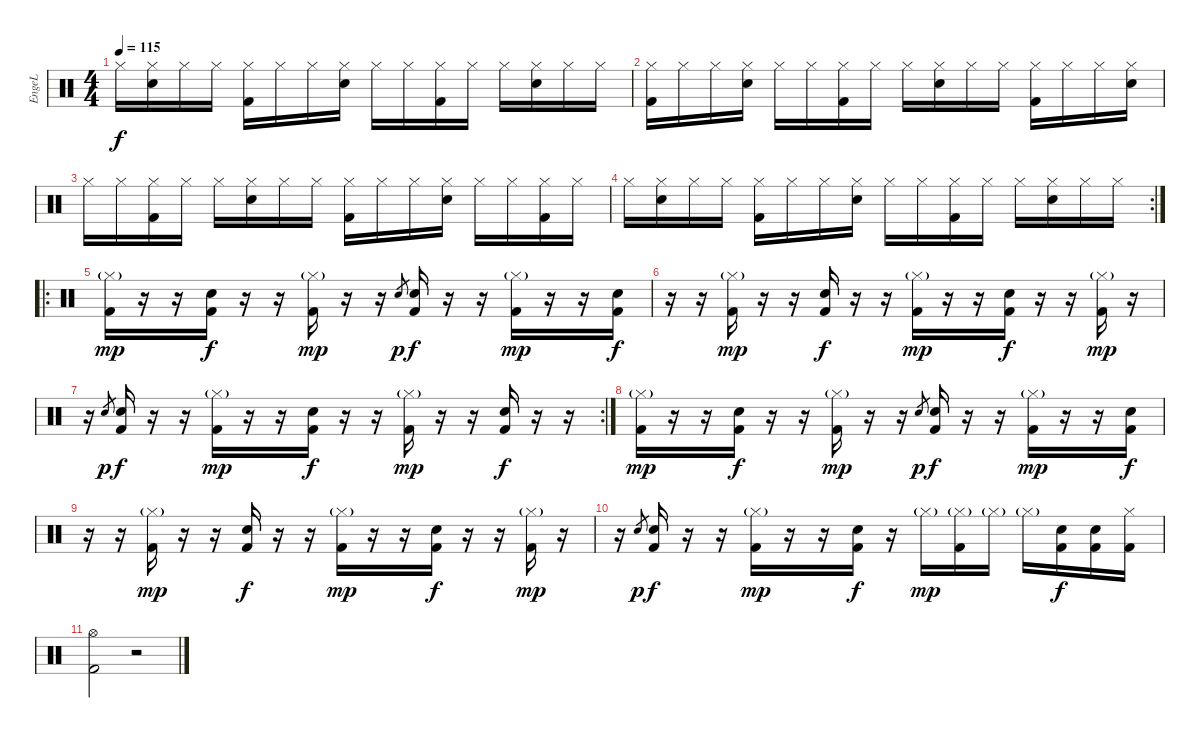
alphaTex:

\track ("EngeL" "EngeL") {instrument percussion}
\staff {score}
\articulation defaults
\ts (4 4)
\tempo 115
\clef neutral
\ks c "Hi-Hat (closed)".16{dy f}
("Hi-Hat (closed)" "Snare (hit) 2").16 "Hi-Hat (closed)".16 "Hi-Hat (closed)".16 ("Hi-Hat (closed)" "Kick (hit) 2").16 "Hi-Hat (closed)".16 "Hi-Hat (closed)".16 ("Hi-Hat (closed)" "Snare (hit) 2").16 "Hi-Hat (closed)".16 "Hi-Hat (closed)".16 ("Hi-Hat (closed)" "Kick (hit) 2").16 "Hi-Hat (closed)".16 "Hi-Hat (closed)".16 ("Hi-Hat (closed)" "Snare (hit) 2").16 "Hi-Hat (closed)".16 "Hi-Hat (closed)".16 |
("Hi-Hat (closed)" "Kick (hit) 2").16 "Hi-Hat (closed)".16 "Hi-Hat (closed)".16 ("Hi-Hat (closed)" "Snare (hit) 2").16 "Hi-Hat (closed)".16 "Hi-Hat (closed)".16 ("Hi-Hat (closed)" "Kick (hit) 2").16 "Hi-Hat (closed)".16 "Hi-Hat (closed)".16 ("Hi-Hat (closed)" "Snare (hit) 2").16 "Hi-Hat (closed)".16 "Hi-Hat (closed)".16 ("Hi-Hat (closed)" "Kick (hit) 2").16 "Hi-Hat (closed)".16 "Hi-Hat (closed)".16 ("Hi-Hat (closed)" "Snare (hit) 2").16 |
"Hi-Hat (closed)".16 "Hi-Hat (closed)".16 ("Hi-Hat (closed)" "Kick (hit) 2").16 "Hi-Hat (closed)".16 "Hi-Hat (closed)".16 ("Hi-Hat (closed)" "Snare (hit) 2").16 "Hi-Hat (closed)".16 "Hi-Hat (closed)".16 ("Hi-Hat (closed)" "Kick (hit) 2").16 "Hi-Hat (closed)".16 "Hi-Hat (closed)".16 ("Hi-Hat (closed)" "Snare (hit) 2").16 "Hi-Hat (closed)".16 "Hi-Hat (closed)".16 ("Hi-Hat (closed)" "Kick (hit) 2").16 "Hi-Hat (closed)".16 |
\rc 2 "Hi-Hat (closed)".16
("Hi-Hat (closed)" "Snare (hit) 2").16 "Hi-Hat (closed)".16 "Hi-Hat (closed)".16 ("Hi-Hat (closed)" "Kick (hit) 2").16 "Hi-Hat (closed)".16 "Hi-Hat (closed)".16 ("Hi-Hat (closed)" "Snare (hit) 2").16 "Hi-Hat (closed)".16 "Hi-Hat (closed)".16 ("Hi-Hat (closed)" "Kick (hit) 2").16 "Hi-Hat (closed)".16 "Hi-Hat (closed)".16 ("Hi-Hat (closed)" "Snare (hit) 2").16 "Hi-Hat (closed)".16 "Hi-Hat (closed)".16 |
\ro
("Kick (hit) 2" "Hi-Hat (closed)"{g}).16{dy mp} r.16 r.16 ("Kick (hit) 2" "Snare (hit) 2").16{dy f} r.16 r.16 ("Kick (hit) 2" "Hi-Hat (closed)"{g}).16{dy mp} r.16 r.16 "Snare (hit) 2".8{gr dy p} ("Kick (hit) 2" "Snare (hit) 2").16{dy f} r.16 r.16 ("Kick (hit) 2" "Hi-Hat (closed)"{g}).16{dy mp} r.16 r.16 ("Kick (hit) 2" "Snare (hit) 2").16{dy f} |
r.16 r.16 ("Kick (hit) 2" "Hi-Hat (closed)"{g}).16{dy mp} r.16 r.16 ("Kick (hit) 2" "Snare (hit) 2").16{dy f} r.16 r.16 ("Kick (hit) 2" "Hi-Hat (closed)"{g}).16{dy mp} r.16 r.16 ("Kick (hit) 2" "Snare (hit) 2").16{dy f} r.16 r.16 ("Kick (hit) 2" "Hi-Hat (closed)"{g}).16{dy mp} r.16 |
\rc 2
r.16 "Snare (hit) 2".8{gr dy p} ("Kick (hit) 2" "Snare (hit) 2").16{dy f} r.16 r.16 ("Kick (hit) 2" "Hi-Hat (closed)"{g}).16{dy mp} r.16 r.16 ("Kick (hit) 2" "Snare (hit) 2").16{dy f} r.16 r.16 ("Kick (hit) 2" "Hi-Hat (closed)"{g}).16{dy mp} r.16 r.16 ("Kick (hit) 2" "Snare (hit) 2").16{dy f} r.16 r.16 |
("Kick (hit) 2" "Hi-Hat (closed)"{g}).16{dy mp} r.16 r.16 ("Kick (hit) 2" "Snare (hit) 2").16{dy f} r.16 r.16 ("Kick (hit) 2" "Hi-Hat (closed)"{g}).16{dy mp} r.16 r.16 "Snare (hit) 2".8{gr dy p} ("Kick (hit) 2" "Snare (hit) 2").16{dy f} r.16 r.16 ("Kick (hit) 2" "Hi-Hat (closed)"{g}).16{dy mp} r.16 r.16 ("Kick (hit) 2" "Snare (hit) 2").16{dy f} |
r.16 r.16 ("Kick (hit) 2" "Hi-Hat (closed)"{g}).16{dy mp} r.16 r.16 ("Kick (hit) 2" "Snare (hit) 2").16{dy f} r.16 r.16 ("Kick (hit) 2" "Hi-Hat (closed)"{g}).16{dy mp} r.16 r.16 ("Kick (hit) 2" "Snare (hit) 2").16{dy f} r.16 r.16 ("Kick (hit) 2" "Hi-Hat (closed)"{g}).16{dy mp} r.16 |
r.16 "Snare (hit) 2".8{gr dy p} ("Kick (hit) 2" "Snare (hit) 2").16{dy f} r.16 r.16 ("Kick (hit) 2" "Hi-Hat (closed)"{g}).16{dy mp} r.16 r.16 ("Kick (hit) 2" "Snare (hit) 2").16{dy f} r.16 "Hi-Hat (closed)"{g}.16{dy mp} ("Kick (hit) 2" "Hi-Hat (closed)"{g}).16 "Hi-Hat (closed)"{g}.16 "Hi-Hat (closed)"{g}.16 ("Kick (hit) 2" "Snare (hit) 2").16{dy f} ("Kick (hit) 2" "Snare (hit) 2").16 ("Kick (hit) 2" "Hi-Hat (closed)").16 |
("Kick (hit) 2" "Hi-Hat (open)").2 r.2
